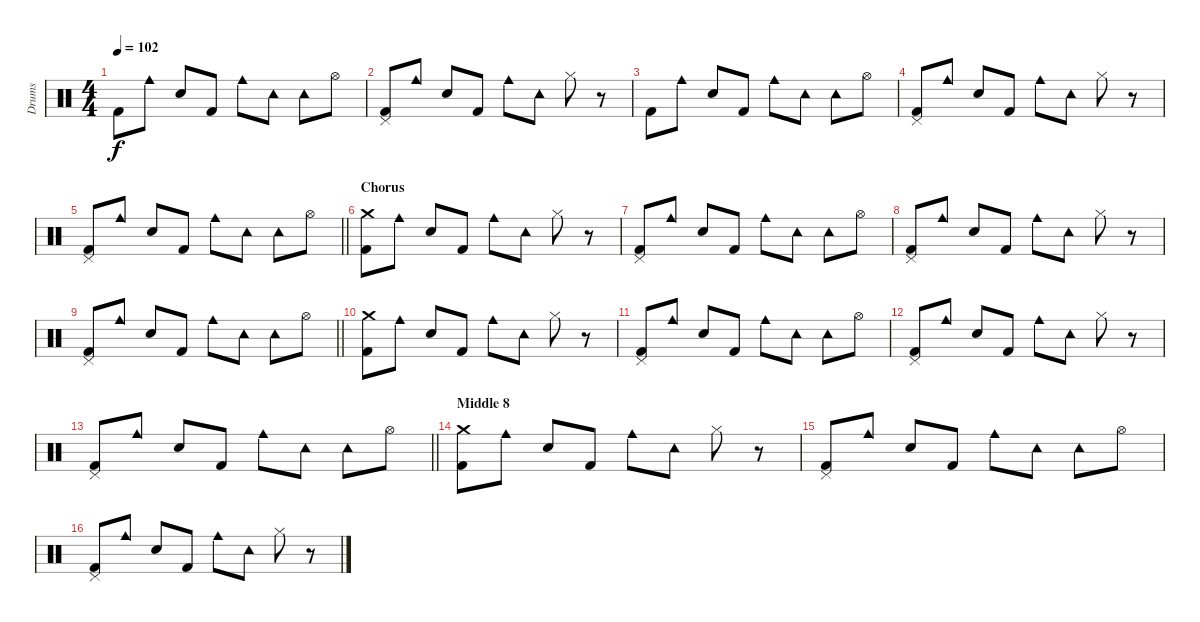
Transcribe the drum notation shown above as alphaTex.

\track ("Drums" "Drums") {instrument percussion}
\staff {score}
\articulation defaults
\ts (4 4)
\tempo 102
\clef neutral
\ks c "Kick (hit) 2".8{dy f} "Cowbell medium (hit)".8 "Electric Snare (hit)".8 "Kick (hit) 2".8 "Cowbell medium (hit)".8 "Tambourine (hit)".8 "Tambourine (hit)".8 "Hi-Hat (open)".8
|
("Pedal Hi-Hat (hit)" "Kick (hit) 2").8 "Cowbell medium (hit)".8 "Electric Snare (hit)".8 "Kick (hit) 2".8 "Cowbell medium (hit)".8 "Tambourine (hit)".8 "Hi-Hat (closed)".8 r.8 |
"Kick (hit) 2".8 "Cowbell medium (hit)".8 "Electric Snare (hit)".8 "Kick (hit) 2".8 "Cowbell medium (hit)".8 "Tambourine (hit)".8 "Tambourine (hit)".8 "Hi-Hat (open)".8 |
("Pedal Hi-Hat (hit)" "Kick (hit) 2").8 "Cowbell medium (hit)".8 "Electric Snare (hit)".8 "Kick (hit) 2".8 "Cowbell medium (hit)".8 "Tambourine (hit)".8 "Hi-Hat (closed)".8 r.8 |
\barLineRight lightlight
("Pedal Hi-Hat (hit)" "Kick (hit) 2").8 "Cowbell medium (hit)".8 "Electric Snare (hit)".8 "Kick (hit) 2".8 "Cowbell medium (hit)".8 "Tambourine (hit)".8 "Tambourine (hit)".8 "Hi-Hat (open)".8 |
\section ("" "Chorus")
("Crash medium (hit)" "Kick (hit) 2").8 "Cowbell medium (hit)".8 "Electric Snare (hit)".8 "Kick (hit) 2".8 "Cowbell medium (hit)".8 "Tambourine (hit)".8 "Hi-Hat (closed)".8 r.8 |
("Pedal Hi-Hat (hit)" "Kick (hit) 2").8 "Cowbell medium (hit)".8 "Electric Snare (hit)".8 "Kick (hit) 2".8 "Cowbell medium (hit)".8 "Tambourine (hit)".8 "Tambourine (hit)".8 "Hi-Hat (open)".8 |
("Pedal Hi-Hat (hit)" "Kick (hit) 2").8 "Cowbell medium (hit)".8 "Electric Snare (hit)".8 "Kick (hit) 2".8 "Cowbell medium (hit)".8 "Tambourine (hit)".8 "Hi-Hat (closed)".8 r.8 |
\barLineRight lightlight
("Pedal Hi-Hat (hit)" "Kick (hit) 2").8 "Cowbell medium (hit)".8 "Electric Snare (hit)".8 "Kick (hit) 2".8 "Cowbell medium (hit)".8 "Tambourine (hit)".8 "Tambourine (hit)".8 "Hi-Hat (open)".8 |
("Crash medium (hit)" "Kick (hit) 2").8 "Cowbell medium (hit)".8 "Electric Snare (hit)".8 "Kick (hit) 2".8 "Cowbell medium (hit)".8 "Tambourine (hit)".8 "Hi-Hat (closed)".8 r.8 |
("Pedal Hi-Hat (hit)" "Kick (hit) 2").8 "Cowbell medium (hit)".8 "Electric Snare (hit)".8 "Kick (hit) 2".8 "Cowbell medium (hit)".8 "Tambourine (hit)".8 "Tambourine (hit)".8 "Hi-Hat (open)".8 |
("Pedal Hi-Hat (hit)" "Kick (hit) 2").8 "Cowbell medium (hit)".8 "Electric Snare (hit)".8 "Kick (hit) 2".8 "Cowbell medium (hit)".8 "Tambourine (hit)".8 "Hi-Hat (closed)".8 r.8 |
\barLineRight lightlight
("Pedal Hi-Hat (hit)" "Kick (hit) 2").8 "Cowbell medium (hit)".8 "Electric Snare (hit)".8 "Kick (hit) 2".8 "Cowbell medium (hit)".8 "Tambourine (hit)".8 "Tambourine (hit)".8 "Hi-Hat (open)".8 |
\section ("" "Middle 8")
("Crash medium (hit)" "Kick (hit) 2").8 "Cowbell medium (hit)".8 "Electric Snare (hit)".8 "Kick (hit) 2".8 "Cowbell medium (hit)".8 "Tambourine (hit)".8 "Hi-Hat (closed)".8 r.8 |
("Pedal Hi-Hat (hit)" "Kick (hit) 2").8 "Cowbell medium (hit)".8 "Electric Snare (hit)".8 "Kick (hit) 2".8 "Cowbell medium (hit)".8 "Tambourine (hit)".8 "Tambourine (hit)".8 "Hi-Hat (open)".8 |
("Pedal Hi-Hat (hit)" "Kick (hit) 2").8 "Cowbell medium (hit)".8 "Electric Snare (hit)".8 "Kick (hit) 2".8 "Cowbell medium (hit)".8 "Tambourine (hit)".8 "Hi-Hat (closed)".8 r.8
